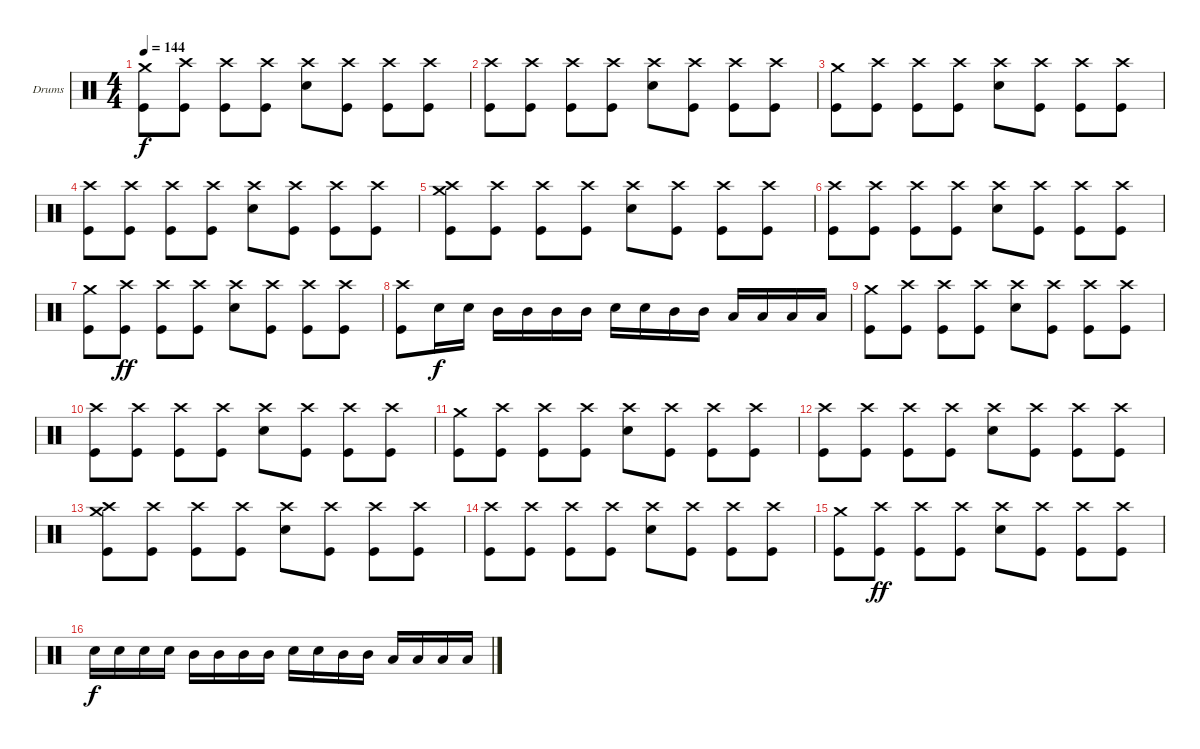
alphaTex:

\bracketExtendMode groupsimilarinstruments
\firstSystemTrackNameOrientation horizontal
\otherSystemsTrackNameOrientation horizontal
\track ("Drumkit" "Drums") {instrument percussion}
\staff {score}
\articulation defaults
\ts (4 4)
\tempo 144
\clef neutral
\ks c
("Crash medium (hit)" "Kick (hit)").8{dy f} ("Crash high (hit)" "Kick (hit)").8 ("Crash high (hit)" "Kick (hit)").8 ("Crash high (hit)" "Kick (hit)").8 ("Crash high (hit)" "Snare (hit) 2").8 ("Crash high (hit)" "Kick (hit)").8 ("Crash high (hit)" "Kick (hit)").8 ("Crash high (hit)" "Kick (hit)").8 |
("Crash high (hit)" "Kick (hit)").8 ("Crash high (hit)" "Kick (hit)").8 ("Crash high (hit)" "Kick (hit)").8 ("Crash high (hit)" "Kick (hit)").8 ("Crash high (hit)" "Snare (hit) 2").8 ("Crash high (hit)" "Kick (hit)").8 ("Crash high (hit)" "Kick (hit)").8 ("Crash high (hit)" "Kick (hit)").8 |
("Crash medium (hit)" "Kick (hit)").8 ("Crash high (hit)" "Kick (hit)").8 ("Crash high (hit)" "Kick (hit)").8 ("Crash high (hit)" "Kick (hit)").8 ("Crash high (hit)" "Snare (hit) 2").8 ("Crash high (hit)" "Kick (hit)").8 ("Crash high (hit)" "Kick (hit)").8 ("Crash high (hit)" "Kick (hit)").8 |
("Crash high (hit)" "Kick (hit)").8 ("Crash high (hit)" "Kick (hit)").8 ("Crash high (hit)" "Kick (hit)").8 ("Crash high (hit)" "Kick (hit)").8 ("Crash high (hit)" "Snare (hit) 2").8 ("Crash high (hit)" "Kick (hit)").8 ("Crash high (hit)" "Kick (hit)").8 ("Crash high (hit)" "Kick (hit)").8 |
("Crash medium (hit)" "Crash high (hit)" "Kick (hit)").8 ("Crash high (hit)" "Kick (hit)").8 ("Crash high (hit)" "Kick (hit)").8 ("Crash high (hit)" "Kick (hit)").8 ("Crash high (hit)" "Snare (hit) 2").8 ("Crash high (hit)" "Kick (hit)").8 ("Crash high (hit)" "Kick (hit)").8 ("Crash high (hit)" "Kick (hit)").8 |
("Crash high (hit)" "Kick (hit)").8 ("Crash high (hit)" "Kick (hit)").8 ("Crash high (hit)" "Kick (hit)").8 ("Crash high (hit)" "Kick (hit)").8 ("Crash high (hit)" "Snare (hit) 2").8 ("Crash high (hit)" "Kick (hit)").8 ("Crash high (hit)" "Kick (hit)").8 ("Crash high (hit)" "Kick (hit)").8 |
("Crash medium (hit)" "Kick (hit)").8 ("Crash high (hit)" "Kick (hit)").8{dy ff} ("Crash high (hit)" "Kick (hit)").8 ("Crash high (hit)" "Kick (hit)").8 ("Crash high (hit)" "Snare (hit) 2").8 ("Crash high (hit)" "Kick (hit)").8 ("Crash high (hit)" "Kick (hit)").8 ("Crash high (hit)" "Kick (hit)").8 |
("Crash high (hit)" "Kick (hit)").8 "Snare (hit) 2".16{dy f} "Snare (hit) 2".16 "Mid Tom (hit)".16 "Mid Tom (hit)".16 "Mid Tom (hit)".16 "Mid Tom (hit)".16 "Snare (hit) 2".16 "Snare (hit) 2".16 "Mid Tom (hit)".16 "Mid Tom (hit)".16 "Low Tom (hit)".16 "Low Tom (hit)".16 "Low Tom (hit)".16 "Low Tom (hit)".16 |
("Crash medium (hit)" "Kick (hit)").8 ("Crash high (hit)" "Kick (hit)").8 ("Crash high (hit)" "Kick (hit)").8 ("Crash high (hit)" "Kick (hit)").8 ("Crash high (hit)" "Snare (hit) 2").8 ("Crash high (hit)" "Kick (hit)").8 ("Crash high (hit)" "Kick (hit)").8 ("Crash high (hit)" "Kick (hit)").8 |
("Crash high (hit)" "Kick (hit)").8 ("Crash high (hit)" "Kick (hit)").8 ("Crash high (hit)" "Kick (hit)").8 ("Crash high (hit)" "Kick (hit)").8 ("Crash high (hit)" "Snare (hit) 2").8 ("Crash high (hit)" "Kick (hit)").8 ("Crash high (hit)" "Kick (hit)").8 ("Crash high (hit)" "Kick (hit)").8 |
("Crash medium (hit)" "Kick (hit)").8 ("Crash high (hit)" "Kick (hit)").8 ("Crash high (hit)" "Kick (hit)").8 ("Crash high (hit)" "Kick (hit)").8 ("Crash high (hit)" "Snare (hit) 2").8 ("Crash high (hit)" "Kick (hit)").8 ("Crash high (hit)" "Kick (hit)").8 ("Crash high (hit)" "Kick (hit)").8 |
("Crash high (hit)" "Kick (hit)").8 ("Crash high (hit)" "Kick (hit)").8 ("Crash high (hit)" "Kick (hit)").8 ("Crash high (hit)" "Kick (hit)").8 ("Crash high (hit)" "Snare (hit) 2").8 ("Crash high (hit)" "Kick (hit)").8 ("Crash high (hit)" "Kick (hit)").8 ("Crash high (hit)" "Kick (hit)").8 |
("Crash medium (hit)" "Crash high (hit)" "Kick (hit)").8 ("Crash high (hit)" "Kick (hit)").8 ("Crash high (hit)" "Kick (hit)").8 ("Crash high (hit)" "Kick (hit)").8 ("Crash high (hit)" "Snare (hit) 2").8 ("Crash high (hit)" "Kick (hit)").8 ("Crash high (hit)" "Kick (hit)").8 ("Crash high (hit)" "Kick (hit)").8 |
("Crash high (hit)" "Kick (hit)").8 ("Crash high (hit)" "Kick (hit)").8 ("Crash high (hit)" "Kick (hit)").8 ("Crash high (hit)" "Kick (hit)").8 ("Crash high (hit)" "Snare (hit) 2").8 ("Crash high (hit)" "Kick (hit)").8 ("Crash high (hit)" "Kick (hit)").8 ("Crash high (hit)" "Kick (hit)").8 |
("Crash medium (hit)" "Kick (hit)").8 ("Crash high (hit)" "Kick (hit)").8{dy ff} ("Crash high (hit)" "Kick (hit)").8 ("Crash high (hit)" "Kick (hit)").8 ("Crash high (hit)" "Snare (hit) 2").8 ("Crash high (hit)" "Kick (hit)").8 ("Crash high (hit)" "Kick (hit)").8 ("Crash high (hit)" "Kick (hit)").8 |
"Snare (hit) 2".16{dy f} "Snare (hit) 2".16 "Snare (hit) 2".16 "Snare (hit) 2".16 "Mid Tom (hit)".16 "Mid Tom (hit)".16 "Mid Tom (hit)".16 "Mid Tom (hit)".16 "Snare (hit) 2".16 "Snare (hit) 2".16 "Mid Tom (hit)".16 "Mid Tom (hit)".16 "Low Tom (hit)".16 "Low Tom (hit)".16 "Low Tom (hit)".16 "Low Tom (hit)".16
